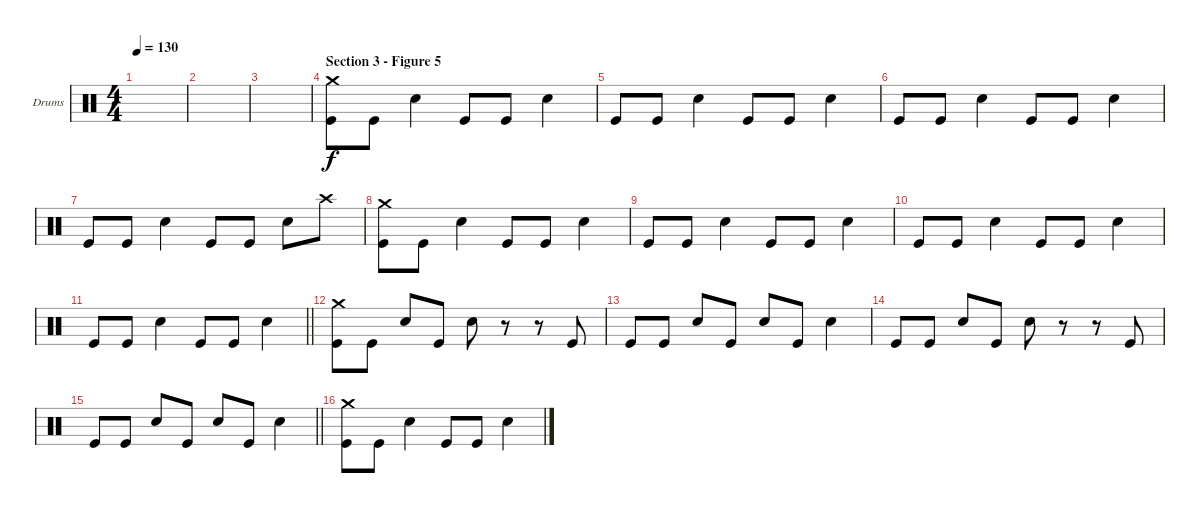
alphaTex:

\defaultSystemsLayout 4
\bracketExtendMode groupsimilarinstruments
\firstSystemTrackNameOrientation horizontal
\otherSystemsTrackNameOrientation horizontal
\track ("Drums" "Drums") {instrument percussion}
\staff {score}
\articulation defaults
\ts (4 4)
\tempo 130
\clef neutral
\ks aminor
|
|
|
\section ("" "Section 3 - Figure 5")
("Kick (hit)" "Crash medium (hit)").8 "Kick (hit)".8 "Snare (hit) 2".4 "Kick (hit)".8 "Kick (hit)".8 "Snare (hit) 2".4 |
"Kick (hit)".8 "Kick (hit)".8 "Snare (hit) 2".4 "Kick (hit)".8 "Kick (hit)".8 "Snare (hit) 2".4 |
"Kick (hit)".8 "Kick (hit)".8 "Snare (hit) 2".4 "Kick (hit)".8 "Kick (hit)".8 "Snare (hit) 2".4 |
"Kick (hit)".8 "Kick (hit)".8 "Snare (hit) 2".4 "Kick (hit)".8 "Kick (hit)".8 "Snare (hit) 2".8 "Crash high (hit)".8 |
("Kick (hit)" "Crash medium (hit)").8 "Kick (hit)".8 "Snare (hit) 2".4 "Kick (hit)".8 "Kick (hit)".8 "Snare (hit) 2".4 |
"Kick (hit)".8 "Kick (hit)".8 "Snare (hit) 2".4 "Kick (hit)".8 "Kick (hit)".8 "Snare (hit) 2".4 |
"Kick (hit)".8 "Kick (hit)".8 "Snare (hit) 2".4 "Kick (hit)".8 "Kick (hit)".8 "Snare (hit) 2".4 |
\barLineRight lightlight "Kick (hit)".8 "Kick (hit)".8 "Snare (hit) 2".4 "Kick (hit)".8 "Kick (hit)".8 "Snare (hit) 2".4
|
("Kick (hit)" "Crash medium (hit)").8 "Kick (hit)".8 "Snare (hit) 2".8 "Kick (hit)".8 "Snare (hit) 2".8 r.8 r.8 "Kick (hit)".8 |
"Kick (hit)".8 "Kick (hit)".8 "Snare (hit) 2".8 "Kick (hit)".8 "Snare (hit) 2".8 "Kick (hit)".8 "Snare (hit) 2".4 |
"Kick (hit)".8 "Kick (hit)".8 "Snare (hit) 2".8 "Kick (hit)".8 "Snare (hit) 2".8 r.8 r.8 "Kick (hit)".8 |
\barLineRight lightlight "Kick (hit)".8 "Kick (hit)".8 "Snare (hit) 2".8 "Kick (hit)".8 "Snare (hit) 2".8 "Kick (hit)".8 "Snare (hit) 2".4
|
("Kick (hit)" "Crash medium (hit)").8 "Kick (hit)".8 "Snare (hit) 2".4 "Kick (hit)".8 "Kick (hit)".8 "Snare (hit) 2".4
